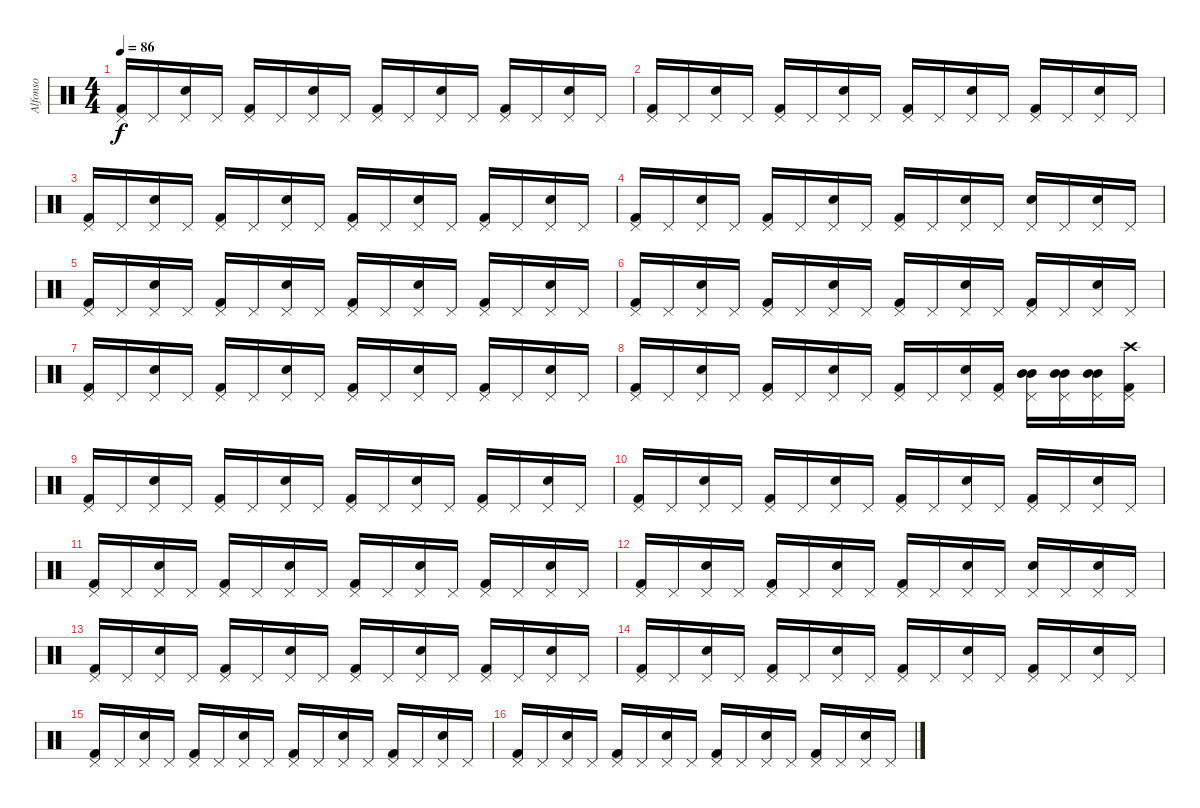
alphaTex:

\track ("Alfonso" "Alfonso") {instrument percussion}
\staff {score}
\articulation defaults
\ts (4 4)
\tempo 86
\clef neutral
\ks c
("Pedal Hi-Hat (hit)" "Kick (hit) 2").16{dy f} "Pedal Hi-Hat (hit)".16 ("Pedal Hi-Hat (hit)" "Electric Snare (hit)").16 "Pedal Hi-Hat (hit)".16 ("Pedal Hi-Hat (hit)" "Kick (hit) 2").16 "Pedal Hi-Hat (hit)".16 ("Pedal Hi-Hat (hit)" "Electric Snare (hit)").16 "Pedal Hi-Hat (hit)".16 ("Pedal Hi-Hat (hit)" "Kick (hit) 2").16 "Pedal Hi-Hat (hit)".16 ("Pedal Hi-Hat (hit)" "Electric Snare (hit)").16 "Pedal Hi-Hat (hit)".16 ("Pedal Hi-Hat (hit)" "Kick (hit) 2").16 "Pedal Hi-Hat (hit)".16 ("Pedal Hi-Hat (hit)" "Electric Snare (hit)").16 "Pedal Hi-Hat (hit)".16 |
("Pedal Hi-Hat (hit)" "Kick (hit) 2").16 "Pedal Hi-Hat (hit)".16 ("Pedal Hi-Hat (hit)" "Electric Snare (hit)").16 "Pedal Hi-Hat (hit)".16 ("Pedal Hi-Hat (hit)" "Kick (hit) 2").16 "Pedal Hi-Hat (hit)".16 ("Pedal Hi-Hat (hit)" "Electric Snare (hit)").16 "Pedal Hi-Hat (hit)".16 ("Pedal Hi-Hat (hit)" "Kick (hit) 2").16 "Pedal Hi-Hat (hit)".16 ("Pedal Hi-Hat (hit)" "Electric Snare (hit)").16 "Pedal Hi-Hat (hit)".16 ("Pedal Hi-Hat (hit)" "Kick (hit) 2").16 "Pedal Hi-Hat (hit)".16 ("Pedal Hi-Hat (hit)" "Electric Snare (hit)").16 "Pedal Hi-Hat (hit)".16 |
("Pedal Hi-Hat (hit)" "Kick (hit) 2").16 "Pedal Hi-Hat (hit)".16 ("Pedal Hi-Hat (hit)" "Electric Snare (hit)").16 "Pedal Hi-Hat (hit)".16 ("Pedal Hi-Hat (hit)" "Kick (hit) 2").16 "Pedal Hi-Hat (hit)".16 ("Pedal Hi-Hat (hit)" "Electric Snare (hit)").16 "Pedal Hi-Hat (hit)".16 ("Pedal Hi-Hat (hit)" "Kick (hit) 2").16 "Pedal Hi-Hat (hit)".16 ("Pedal Hi-Hat (hit)" "Electric Snare (hit)").16 "Pedal Hi-Hat (hit)".16 ("Pedal Hi-Hat (hit)" "Kick (hit) 2").16 "Pedal Hi-Hat (hit)".16 ("Pedal Hi-Hat (hit)" "Electric Snare (hit)").16 "Pedal Hi-Hat (hit)".16 |
("Pedal Hi-Hat (hit)" "Kick (hit) 2").16 "Pedal Hi-Hat (hit)".16 ("Pedal Hi-Hat (hit)" "Electric Snare (hit)").16 "Pedal Hi-Hat (hit)".16 ("Pedal Hi-Hat (hit)" "Kick (hit) 2").16 "Pedal Hi-Hat (hit)".16 ("Pedal Hi-Hat (hit)" "Electric Snare (hit)").16 "Pedal Hi-Hat (hit)".16 ("Pedal Hi-Hat (hit)" "Kick (hit) 2").16 "Pedal Hi-Hat (hit)".16 ("Pedal Hi-Hat (hit)" "Electric Snare (hit)").16 "Pedal Hi-Hat (hit)".16 ("Pedal Hi-Hat (hit)" "Electric Snare (hit)").16 "Pedal Hi-Hat (hit)".16 ("Pedal Hi-Hat (hit)" "Electric Snare (hit)").16 "Pedal Hi-Hat (hit)".16 |
("Pedal Hi-Hat (hit)" "Kick (hit) 2").16 "Pedal Hi-Hat (hit)".16 ("Pedal Hi-Hat (hit)" "Electric Snare (hit)").16 "Pedal Hi-Hat (hit)".16 ("Pedal Hi-Hat (hit)" "Kick (hit) 2").16 "Pedal Hi-Hat (hit)".16 ("Pedal Hi-Hat (hit)" "Electric Snare (hit)").16 "Pedal Hi-Hat (hit)".16 ("Pedal Hi-Hat (hit)" "Kick (hit) 2").16 "Pedal Hi-Hat (hit)".16 ("Pedal Hi-Hat (hit)" "Electric Snare (hit)").16 "Pedal Hi-Hat (hit)".16 ("Pedal Hi-Hat (hit)" "Kick (hit) 2").16 "Pedal Hi-Hat (hit)".16 ("Pedal Hi-Hat (hit)" "Electric Snare (hit)").16 "Pedal Hi-Hat (hit)".16 |
("Pedal Hi-Hat (hit)" "Kick (hit) 2").16 "Pedal Hi-Hat (hit)".16 ("Pedal Hi-Hat (hit)" "Electric Snare (hit)").16 "Pedal Hi-Hat (hit)".16 ("Pedal Hi-Hat (hit)" "Kick (hit) 2").16 "Pedal Hi-Hat (hit)".16 ("Pedal Hi-Hat (hit)" "Electric Snare (hit)").16 "Pedal Hi-Hat (hit)".16 ("Pedal Hi-Hat (hit)" "Kick (hit) 2").16 "Pedal Hi-Hat (hit)".16 ("Pedal Hi-Hat (hit)" "Electric Snare (hit)").16 "Pedal Hi-Hat (hit)".16 ("Pedal Hi-Hat (hit)" "Kick (hit) 2").16 "Pedal Hi-Hat (hit)".16 ("Pedal Hi-Hat (hit)" "Electric Snare (hit)").16 "Pedal Hi-Hat (hit)".16 |
("Pedal Hi-Hat (hit)" "Kick (hit) 2").16 "Pedal Hi-Hat (hit)".16 ("Pedal Hi-Hat (hit)" "Electric Snare (hit)").16 "Pedal Hi-Hat (hit)".16 ("Pedal Hi-Hat (hit)" "Kick (hit) 2").16 "Pedal Hi-Hat (hit)".16 ("Pedal Hi-Hat (hit)" "Electric Snare (hit)").16 "Pedal Hi-Hat (hit)".16 ("Pedal Hi-Hat (hit)" "Kick (hit) 2").16 "Pedal Hi-Hat (hit)".16 ("Pedal Hi-Hat (hit)" "Electric Snare (hit)").16 "Pedal Hi-Hat (hit)".16 ("Pedal Hi-Hat (hit)" "Kick (hit) 2").16 "Pedal Hi-Hat (hit)".16 ("Pedal Hi-Hat (hit)" "Electric Snare (hit)").16 "Pedal Hi-Hat (hit)".16 |
("Pedal Hi-Hat (hit)" "Kick (hit) 2").16 "Pedal Hi-Hat (hit)".16 ("Pedal Hi-Hat (hit)" "Electric Snare (hit)").16 "Pedal Hi-Hat (hit)".16 ("Pedal Hi-Hat (hit)" "Kick (hit) 2").16 "Pedal Hi-Hat (hit)".16 ("Pedal Hi-Hat (hit)" "Electric Snare (hit)").16 "Pedal Hi-Hat (hit)".16 ("Pedal Hi-Hat (hit)" "Kick (hit) 2").16 "Pedal Hi-Hat (hit)".16 ("Pedal Hi-Hat (hit)" "Electric Snare (hit)").16 ("Pedal Hi-Hat (hit)" "Kick (hit) 2").16 ("Pedal Hi-Hat (hit)" "Mid Tom (hit)" "Mid Tom (hit)").16 ("Pedal Hi-Hat (hit)" "Mid Tom (hit)" "Mid Tom (hit)").16 ("Pedal Hi-Hat (hit)" "Mid Tom (hit)" "Mid Tom (hit)").16 ("Pedal Hi-Hat (hit)" "Crash high (hit)" "Kick (hit) 2").16 |
("Pedal Hi-Hat (hit)" "Kick (hit) 2").16 "Pedal Hi-Hat (hit)".16 ("Pedal Hi-Hat (hit)" "Electric Snare (hit)").16 "Pedal Hi-Hat (hit)".16 ("Pedal Hi-Hat (hit)" "Kick (hit) 2").16 "Pedal Hi-Hat (hit)".16 ("Pedal Hi-Hat (hit)" "Electric Snare (hit)").16 "Pedal Hi-Hat (hit)".16 ("Pedal Hi-Hat (hit)" "Kick (hit) 2").16 "Pedal Hi-Hat (hit)".16 ("Pedal Hi-Hat (hit)" "Electric Snare (hit)").16 "Pedal Hi-Hat (hit)".16 ("Pedal Hi-Hat (hit)" "Kick (hit) 2").16 "Pedal Hi-Hat (hit)".16 ("Pedal Hi-Hat (hit)" "Electric Snare (hit)").16 "Pedal Hi-Hat (hit)".16 |
("Pedal Hi-Hat (hit)" "Kick (hit) 2").16 "Pedal Hi-Hat (hit)".16 ("Pedal Hi-Hat (hit)" "Electric Snare (hit)").16 "Pedal Hi-Hat (hit)".16 ("Pedal Hi-Hat (hit)" "Kick (hit) 2").16 "Pedal Hi-Hat (hit)".16 ("Pedal Hi-Hat (hit)" "Electric Snare (hit)").16 "Pedal Hi-Hat (hit)".16 ("Pedal Hi-Hat (hit)" "Kick (hit) 2").16 "Pedal Hi-Hat (hit)".16 ("Pedal Hi-Hat (hit)" "Electric Snare (hit)").16 "Pedal Hi-Hat (hit)".16 ("Pedal Hi-Hat (hit)" "Kick (hit) 2").16 "Pedal Hi-Hat (hit)".16 ("Pedal Hi-Hat (hit)" "Electric Snare (hit)").16 "Pedal Hi-Hat (hit)".16 |
("Pedal Hi-Hat (hit)" "Kick (hit) 2").16 "Pedal Hi-Hat (hit)".16 ("Pedal Hi-Hat (hit)" "Electric Snare (hit)").16 "Pedal Hi-Hat (hit)".16 ("Pedal Hi-Hat (hit)" "Kick (hit) 2").16 "Pedal Hi-Hat (hit)".16 ("Pedal Hi-Hat (hit)" "Electric Snare (hit)").16 "Pedal Hi-Hat (hit)".16 ("Pedal Hi-Hat (hit)" "Kick (hit) 2").16 "Pedal Hi-Hat (hit)".16 ("Pedal Hi-Hat (hit)" "Electric Snare (hit)").16 "Pedal Hi-Hat (hit)".16 ("Pedal Hi-Hat (hit)" "Kick (hit) 2").16 "Pedal Hi-Hat (hit)".16 ("Pedal Hi-Hat (hit)" "Electric Snare (hit)").16 "Pedal Hi-Hat (hit)".16 |
("Pedal Hi-Hat (hit)" "Kick (hit) 2").16 "Pedal Hi-Hat (hit)".16 ("Pedal Hi-Hat (hit)" "Electric Snare (hit)").16 "Pedal Hi-Hat (hit)".16 ("Pedal Hi-Hat (hit)" "Kick (hit) 2").16 "Pedal Hi-Hat (hit)".16 ("Pedal Hi-Hat (hit)" "Electric Snare (hit)").16 "Pedal Hi-Hat (hit)".16 ("Pedal Hi-Hat (hit)" "Kick (hit) 2").16 "Pedal Hi-Hat (hit)".16 ("Pedal Hi-Hat (hit)" "Electric Snare (hit)").16 "Pedal Hi-Hat (hit)".16 ("Pedal Hi-Hat (hit)" "Electric Snare (hit)").16 "Pedal Hi-Hat (hit)".16 ("Pedal Hi-Hat (hit)" "Electric Snare (hit)").16 "Pedal Hi-Hat (hit)".16 |
("Pedal Hi-Hat (hit)" "Kick (hit) 2").16 "Pedal Hi-Hat (hit)".16 ("Pedal Hi-Hat (hit)" "Electric Snare (hit)").16 "Pedal Hi-Hat (hit)".16 ("Pedal Hi-Hat (hit)" "Kick (hit) 2").16 "Pedal Hi-Hat (hit)".16 ("Pedal Hi-Hat (hit)" "Electric Snare (hit)").16 "Pedal Hi-Hat (hit)".16 ("Pedal Hi-Hat (hit)" "Kick (hit) 2").16 "Pedal Hi-Hat (hit)".16 ("Pedal Hi-Hat (hit)" "Electric Snare (hit)").16 "Pedal Hi-Hat (hit)".16 ("Pedal Hi-Hat (hit)" "Kick (hit) 2").16 "Pedal Hi-Hat (hit)".16 ("Pedal Hi-Hat (hit)" "Electric Snare (hit)").16 "Pedal Hi-Hat (hit)".16 |
("Pedal Hi-Hat (hit)" "Kick (hit) 2").16 "Pedal Hi-Hat (hit)".16 ("Pedal Hi-Hat (hit)" "Electric Snare (hit)").16 "Pedal Hi-Hat (hit)".16 ("Pedal Hi-Hat (hit)" "Kick (hit) 2").16 "Pedal Hi-Hat (hit)".16 ("Pedal Hi-Hat (hit)" "Electric Snare (hit)").16 "Pedal Hi-Hat (hit)".16 ("Pedal Hi-Hat (hit)" "Kick (hit) 2").16 "Pedal Hi-Hat (hit)".16 ("Pedal Hi-Hat (hit)" "Electric Snare (hit)").16 "Pedal Hi-Hat (hit)".16 ("Pedal Hi-Hat (hit)" "Kick (hit) 2").16 "Pedal Hi-Hat (hit)".16 ("Pedal Hi-Hat (hit)" "Electric Snare (hit)").16 "Pedal Hi-Hat (hit)".16 |
("Pedal Hi-Hat (hit)" "Kick (hit) 2").16 "Pedal Hi-Hat (hit)".16 ("Pedal Hi-Hat (hit)" "Electric Snare (hit)").16 "Pedal Hi-Hat (hit)".16 ("Pedal Hi-Hat (hit)" "Kick (hit) 2").16 "Pedal Hi-Hat (hit)".16 ("Pedal Hi-Hat (hit)" "Electric Snare (hit)").16 "Pedal Hi-Hat (hit)".16 ("Pedal Hi-Hat (hit)" "Kick (hit) 2").16 "Pedal Hi-Hat (hit)".16 ("Pedal Hi-Hat (hit)" "Electric Snare (hit)").16 "Pedal Hi-Hat (hit)".16 ("Pedal Hi-Hat (hit)" "Kick (hit) 2").16 "Pedal Hi-Hat (hit)".16 ("Pedal Hi-Hat (hit)" "Electric Snare (hit)").16 "Pedal Hi-Hat (hit)".16 |
("Pedal Hi-Hat (hit)" "Kick (hit) 2").16 "Pedal Hi-Hat (hit)".16 ("Pedal Hi-Hat (hit)" "Electric Snare (hit)").16 "Pedal Hi-Hat (hit)".16 ("Pedal Hi-Hat (hit)" "Kick (hit) 2").16 "Pedal Hi-Hat (hit)".16 ("Pedal Hi-Hat (hit)" "Electric Snare (hit)").16 "Pedal Hi-Hat (hit)".16 ("Pedal Hi-Hat (hit)" "Kick (hit) 2").16 "Pedal Hi-Hat (hit)".16 ("Pedal Hi-Hat (hit)" "Electric Snare (hit)").16 "Pedal Hi-Hat (hit)".16 ("Pedal Hi-Hat (hit)" "Kick (hit) 2").16 "Pedal Hi-Hat (hit)".16 ("Pedal Hi-Hat (hit)" "Electric Snare (hit)").16 "Pedal Hi-Hat (hit)".16
